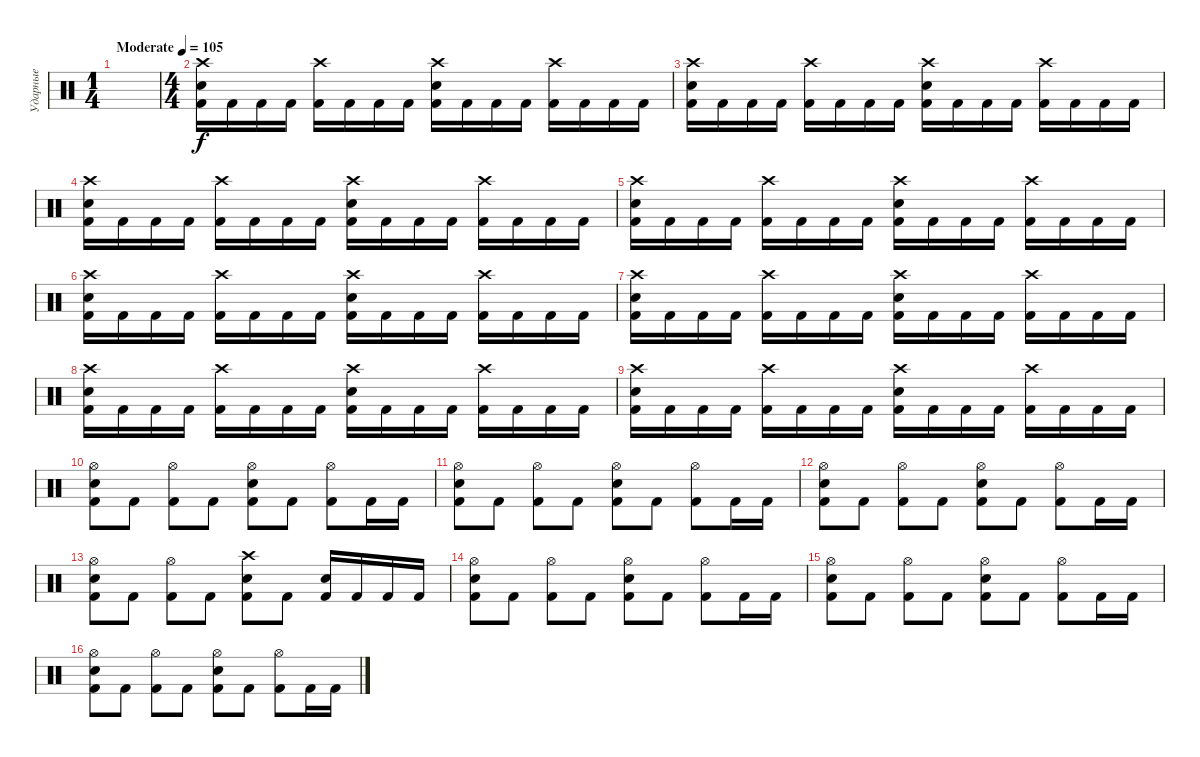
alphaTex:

\track ("Ударные" "Ударные") {instrument percussion}
\staff {score}
\articulation defaults
\ts (1 4)
\tempo (105 "Moderate")
\clef neutral
\ks c
|
\ts (4 4)
("Crash high (hit)" "Electric Snare (hit)" "Kick (hit) 2").16 "Kick (hit) 2".16 "Kick (hit) 2".16 "Kick (hit) 2".16 ("Crash high (hit)" "Kick (hit) 2").16 "Kick (hit) 2".16 "Kick (hit) 2".16 "Kick (hit) 2".16 ("Crash high (hit)" "Electric Snare (hit)" "Kick (hit) 2").16 "Kick (hit) 2".16 "Kick (hit) 2".16 "Kick (hit) 2".16 ("Crash high (hit)" "Kick (hit) 2").16 "Kick (hit) 2".16 "Kick (hit) 2".16 "Kick (hit) 2".16 |
("Crash high (hit)" "Electric Snare (hit)" "Kick (hit) 2").16 "Kick (hit) 2".16 "Kick (hit) 2".16 "Kick (hit) 2".16 ("Crash high (hit)" "Kick (hit) 2").16 "Kick (hit) 2".16 "Kick (hit) 2".16 "Kick (hit) 2".16 ("Crash high (hit)" "Electric Snare (hit)" "Kick (hit) 2").16 "Kick (hit) 2".16 "Kick (hit) 2".16 "Kick (hit) 2".16 ("Crash high (hit)" "Kick (hit) 2").16 "Kick (hit) 2".16 "Kick (hit) 2".16 "Kick (hit) 2".16 |
("Crash high (hit)" "Electric Snare (hit)" "Kick (hit) 2").16 "Kick (hit) 2".16 "Kick (hit) 2".16 "Kick (hit) 2".16 ("Crash high (hit)" "Kick (hit) 2").16 "Kick (hit) 2".16 "Kick (hit) 2".16 "Kick (hit) 2".16 ("Crash high (hit)" "Electric Snare (hit)" "Kick (hit) 2").16 "Kick (hit) 2".16 "Kick (hit) 2".16 "Kick (hit) 2".16 ("Crash high (hit)" "Kick (hit) 2").16 "Kick (hit) 2".16 "Kick (hit) 2".16 "Kick (hit) 2".16 |
("Crash high (hit)" "Electric Snare (hit)" "Kick (hit) 2").16 "Kick (hit) 2".16 "Kick (hit) 2".16 "Kick (hit) 2".16 ("Crash high (hit)" "Kick (hit) 2").16 "Kick (hit) 2".16 "Kick (hit) 2".16 "Kick (hit) 2".16 ("Crash high (hit)" "Electric Snare (hit)" "Kick (hit) 2").16 "Kick (hit) 2".16 "Kick (hit) 2".16 "Kick (hit) 2".16 ("Crash high (hit)" "Kick (hit) 2").16 "Kick (hit) 2".16 "Kick (hit) 2".16 "Kick (hit) 2".16 |
("Crash high (hit)" "Electric Snare (hit)" "Kick (hit) 2").16 "Kick (hit) 2".16 "Kick (hit) 2".16 "Kick (hit) 2".16 ("Crash high (hit)" "Kick (hit) 2").16 "Kick (hit) 2".16 "Kick (hit) 2".16 "Kick (hit) 2".16 ("Crash high (hit)" "Electric Snare (hit)" "Kick (hit) 2").16 "Kick (hit) 2".16 "Kick (hit) 2".16 "Kick (hit) 2".16 ("Crash high (hit)" "Kick (hit) 2").16 "Kick (hit) 2".16 "Kick (hit) 2".16 "Kick (hit) 2".16 |
("Crash high (hit)" "Electric Snare (hit)" "Kick (hit) 2").16 "Kick (hit) 2".16 "Kick (hit) 2".16 "Kick (hit) 2".16 ("Crash high (hit)" "Kick (hit) 2").16 "Kick (hit) 2".16 "Kick (hit) 2".16 "Kick (hit) 2".16 ("Crash high (hit)" "Electric Snare (hit)" "Kick (hit) 2").16 "Kick (hit) 2".16 "Kick (hit) 2".16 "Kick (hit) 2".16 ("Crash high (hit)" "Kick (hit) 2").16 "Kick (hit) 2".16 "Kick (hit) 2".16 "Kick (hit) 2".16 |
("Crash high (hit)" "Electric Snare (hit)" "Kick (hit) 2").16 "Kick (hit) 2".16 "Kick (hit) 2".16 "Kick (hit) 2".16 ("Crash high (hit)" "Kick (hit) 2").16 "Kick (hit) 2".16 "Kick (hit) 2".16 "Kick (hit) 2".16 ("Crash high (hit)" "Electric Snare (hit)" "Kick (hit) 2").16 "Kick (hit) 2".16 "Kick (hit) 2".16 "Kick (hit) 2".16 ("Crash high (hit)" "Kick (hit) 2").16 "Kick (hit) 2".16 "Kick (hit) 2".16 "Kick (hit) 2".16 |
("Crash high (hit)" "Electric Snare (hit)" "Kick (hit) 2").16 "Kick (hit) 2".16 "Kick (hit) 2".16 "Kick (hit) 2".16 ("Crash high (hit)" "Kick (hit) 2").16 "Kick (hit) 2".16 "Kick (hit) 2".16 "Kick (hit) 2".16 ("Crash high (hit)" "Electric Snare (hit)" "Kick (hit) 2").16 "Kick (hit) 2".16 "Kick (hit) 2".16 "Kick (hit) 2".16 ("Crash high (hit)" "Kick (hit) 2").16 "Kick (hit) 2".16 "Kick (hit) 2".16 "Kick (hit) 2".16 |
("Hi-Hat (open)" "Electric Snare (hit)" "Kick (hit) 2").8{dy f} "Kick (hit) 2".8 ("Hi-Hat (open)" "Kick (hit) 2").8 "Kick (hit) 2".8 ("Hi-Hat (open)" "Electric Snare (hit)" "Kick (hit) 2").8 "Kick (hit) 2".8 ("Hi-Hat (open)" "Kick (hit) 2").8 "Kick (hit) 2".16 "Kick (hit) 2".16 |
("Hi-Hat (open)" "Electric Snare (hit)" "Kick (hit) 2").8 "Kick (hit) 2".8 ("Hi-Hat (open)" "Kick (hit) 2").8 "Kick (hit) 2".8 ("Hi-Hat (open)" "Electric Snare (hit)" "Kick (hit) 2").8 "Kick (hit) 2".8 ("Hi-Hat (open)" "Kick (hit) 2").8 "Kick (hit) 2".16 "Kick (hit) 2".16 |
("Hi-Hat (open)" "Electric Snare (hit)" "Kick (hit) 2").8 "Kick (hit) 2".8 ("Hi-Hat (open)" "Kick (hit) 2").8 "Kick (hit) 2".8 ("Hi-Hat (open)" "Electric Snare (hit)" "Kick (hit) 2").8 "Kick (hit) 2".8 ("Hi-Hat (open)" "Kick (hit) 2").8 "Kick (hit) 2".16 "Kick (hit) 2".16 |
("Hi-Hat (open)" "Electric Snare (hit)" "Kick (hit) 2").8 "Kick (hit) 2".8 ("Hi-Hat (open)" "Kick (hit) 2").8 "Kick (hit) 2".8 ("Crash high (hit)" "Electric Snare (hit)" "Kick (hit) 2").8 "Kick (hit) 2".8 ("Electric Snare (hit)" "Kick (hit) 2").16 "Kick (hit) 2".16 "Kick (hit) 2".16 "Kick (hit) 2".16 |
("Hi-Hat (open)" "Electric Snare (hit)" "Kick (hit) 2").8 "Kick (hit) 2".8 ("Hi-Hat (open)" "Kick (hit) 2").8 "Kick (hit) 2".8 ("Hi-Hat (open)" "Electric Snare (hit)" "Kick (hit) 2").8 "Kick (hit) 2".8 ("Hi-Hat (open)" "Kick (hit) 2").8 "Kick (hit) 2".16 "Kick (hit) 2".16 |
("Hi-Hat (open)" "Electric Snare (hit)" "Kick (hit) 2").8 "Kick (hit) 2".8 ("Hi-Hat (open)" "Kick (hit) 2").8 "Kick (hit) 2".8 ("Hi-Hat (open)" "Electric Snare (hit)" "Kick (hit) 2").8 "Kick (hit) 2".8 ("Hi-Hat (open)" "Kick (hit) 2").8 "Kick (hit) 2".16 "Kick (hit) 2".16 |
("Hi-Hat (open)" "Electric Snare (hit)" "Kick (hit) 2").8 "Kick (hit) 2".8 ("Hi-Hat (open)" "Kick (hit) 2").8 "Kick (hit) 2".8 ("Hi-Hat (open)" "Electric Snare (hit)" "Kick (hit) 2").8 "Kick (hit) 2".8 ("Hi-Hat (open)" "Kick (hit) 2").8 "Kick (hit) 2".16 "Kick (hit) 2".16
